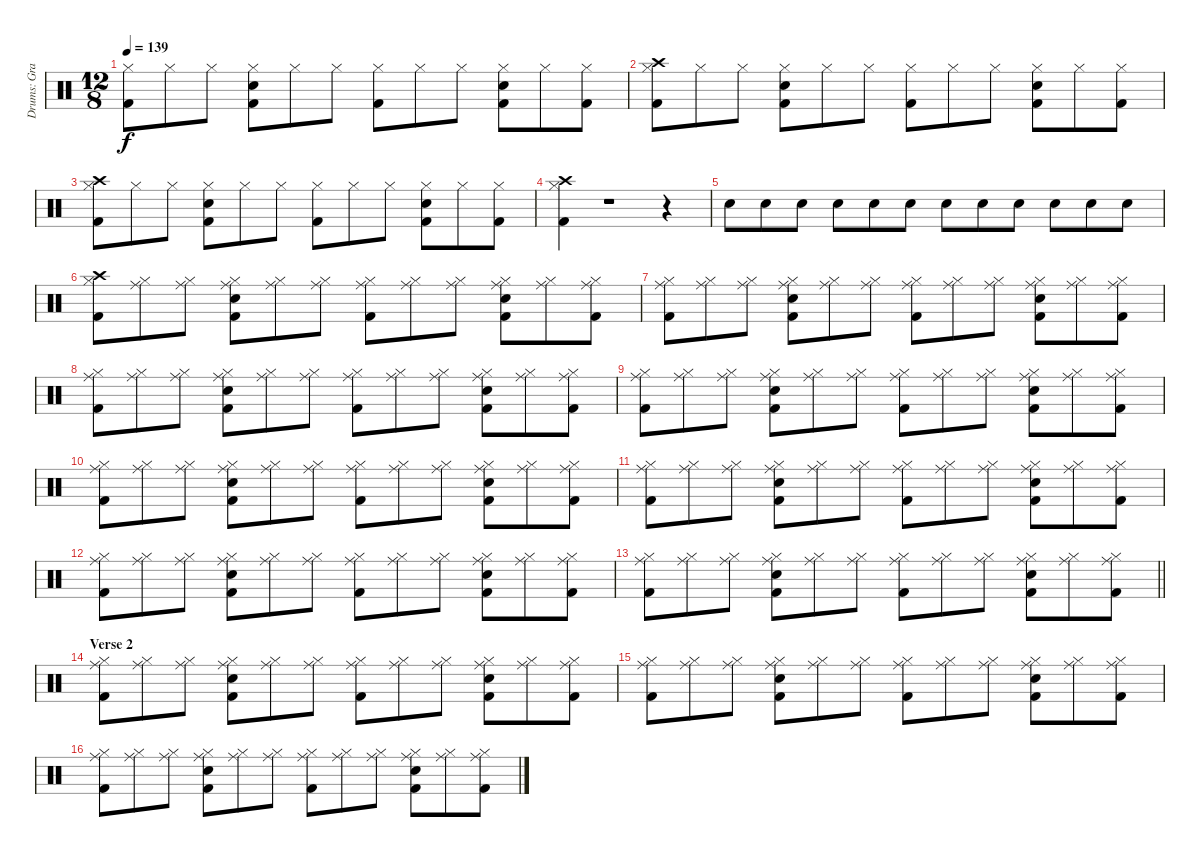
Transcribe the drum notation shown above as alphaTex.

\track ("Drums: Graeme Edge" "Drums: Gra") {instrument percussion}
\staff {score}
\articulation defaults
\ts (12 8)
\tempo 139
\clef neutral
\ks c
("Hi-Hat (closed)" "Kick (hit) 2").8{dy f} "Hi-Hat (closed)".8 "Hi-Hat (closed)".8 ("Hi-Hat (closed)" "Snare (hit) 2" "Kick (hit) 2").8 "Hi-Hat (closed)".8 "Hi-Hat (closed)".8 ("Hi-Hat (closed)" "Kick (hit) 2").8 "Hi-Hat (closed)".8 "Hi-Hat (closed)".8 ("Hi-Hat (closed)" "Snare (hit) 2" "Kick (hit) 2").8 "Hi-Hat (closed)".8 ("Hi-Hat (closed)" "Kick (hit) 2").8 |
("Crash high (hit)" "Hi-Hat (closed)" "Kick (hit) 2").8 "Hi-Hat (closed)".8 "Hi-Hat (closed)".8 ("Hi-Hat (closed)" "Snare (hit) 2" "Kick (hit) 2").8 "Hi-Hat (closed)".8 "Hi-Hat (closed)".8 ("Hi-Hat (closed)" "Kick (hit) 2").8 "Hi-Hat (closed)".8 "Hi-Hat (closed)".8 ("Hi-Hat (closed)" "Snare (hit) 2" "Kick (hit) 2").8 "Hi-Hat (closed)".8 ("Hi-Hat (closed)" "Kick (hit) 2").8 |
("Crash high (hit)" "Hi-Hat (closed)" "Kick (hit) 2").8 "Hi-Hat (closed)".8 "Hi-Hat (closed)".8 ("Hi-Hat (closed)" "Snare (hit) 2" "Kick (hit) 2").8 "Hi-Hat (closed)".8 "Hi-Hat (closed)".8 ("Hi-Hat (closed)" "Kick (hit) 2").8 "Hi-Hat (closed)".8 "Hi-Hat (closed)".8 ("Hi-Hat (closed)" "Snare (hit) 2" "Kick (hit) 2").8 "Hi-Hat (closed)".8 ("Hi-Hat (closed)" "Kick (hit) 2").8 |
("Hi-Hat (closed)" "Crash high (hit)" "Kick (hit) 2").4 r.1 r.4 |
"Snare (hit) 2".8 "Snare (hit) 2".8 "Snare (hit) 2".8 "Snare (hit) 2".8 "Snare (hit) 2".8 "Snare (hit) 2".8 "Snare (hit) 2".8 "Snare (hit) 2".8 "Snare (hit) 2".8 "Snare (hit) 2".8 "Snare (hit) 2".8 "Snare (hit) 2".8 |
("Crash high (hit)" "Hi-Hat (closed)" "Kick (hit) 2").8 ("Ride (middle)" "Hi-Hat (closed)").8 ("Ride (middle)" "Hi-Hat (closed)").8 ("Ride (middle)" "Hi-Hat (closed)" "Snare (hit) 2" "Kick (hit) 2").8 ("Ride (middle)" "Hi-Hat (closed)").8 ("Ride (middle)" "Hi-Hat (closed)").8 ("Ride (middle)" "Hi-Hat (closed)" "Kick (hit) 2").8 ("Ride (middle)" "Hi-Hat (closed)").8 ("Ride (middle)" "Hi-Hat (closed)").8 ("Ride (middle)" "Hi-Hat (closed)" "Snare (hit) 2" "Kick (hit) 2").8 ("Ride (middle)" "Hi-Hat (closed)").8 ("Ride (middle)" "Hi-Hat (closed)" "Kick (hit) 2").8 |
("Ride (middle)" "Hi-Hat (closed)" "Kick (hit) 2").8 ("Ride (middle)" "Hi-Hat (closed)").8 ("Ride (middle)" "Hi-Hat (closed)").8 ("Ride (middle)" "Hi-Hat (closed)" "Snare (hit) 2" "Kick (hit) 2").8 ("Ride (middle)" "Hi-Hat (closed)").8 ("Ride (middle)" "Hi-Hat (closed)").8 ("Ride (middle)" "Hi-Hat (closed)" "Kick (hit) 2").8 ("Ride (middle)" "Hi-Hat (closed)").8 ("Ride (middle)" "Hi-Hat (closed)").8 ("Ride (middle)" "Hi-Hat (closed)" "Snare (hit) 2" "Kick (hit) 2").8 ("Ride (middle)" "Hi-Hat (closed)").8 ("Ride (middle)" "Hi-Hat (closed)" "Kick (hit) 2").8 |
("Ride (middle)" "Hi-Hat (closed)" "Kick (hit) 2").8 ("Ride (middle)" "Hi-Hat (closed)").8 ("Ride (middle)" "Hi-Hat (closed)").8 ("Ride (middle)" "Hi-Hat (closed)" "Snare (hit) 2" "Kick (hit) 2").8 ("Ride (middle)" "Hi-Hat (closed)").8 ("Ride (middle)" "Hi-Hat (closed)").8 ("Ride (middle)" "Hi-Hat (closed)" "Kick (hit) 2").8 ("Ride (middle)" "Hi-Hat (closed)").8 ("Ride (middle)" "Hi-Hat (closed)").8 ("Ride (middle)" "Hi-Hat (closed)" "Snare (hit) 2" "Kick (hit) 2").8 ("Ride (middle)" "Hi-Hat (closed)").8 ("Ride (middle)" "Hi-Hat (closed)" "Kick (hit) 2").8 |
("Ride (middle)" "Hi-Hat (closed)" "Kick (hit) 2").8 ("Ride (middle)" "Hi-Hat (closed)").8 ("Ride (middle)" "Hi-Hat (closed)").8 ("Ride (middle)" "Hi-Hat (closed)" "Snare (hit) 2" "Kick (hit) 2").8 ("Ride (middle)" "Hi-Hat (closed)").8 ("Ride (middle)" "Hi-Hat (closed)").8 ("Ride (middle)" "Hi-Hat (closed)" "Kick (hit) 2").8 ("Ride (middle)" "Hi-Hat (closed)").8 ("Ride (middle)" "Hi-Hat (closed)").8 ("Ride (middle)" "Hi-Hat (closed)" "Snare (hit) 2" "Kick (hit) 2").8 ("Ride (middle)" "Hi-Hat (closed)").8 ("Ride (middle)" "Hi-Hat (closed)" "Kick (hit) 2").8 |
("Ride (middle)" "Hi-Hat (closed)" "Kick (hit) 2").8 ("Ride (middle)" "Hi-Hat (closed)").8 ("Ride (middle)" "Hi-Hat (closed)").8 ("Ride (middle)" "Hi-Hat (closed)" "Snare (hit) 2" "Kick (hit) 2").8 ("Ride (middle)" "Hi-Hat (closed)").8 ("Ride (middle)" "Hi-Hat (closed)").8 ("Ride (middle)" "Hi-Hat (closed)" "Kick (hit) 2").8 ("Ride (middle)" "Hi-Hat (closed)").8 ("Ride (middle)" "Hi-Hat (closed)").8 ("Ride (middle)" "Hi-Hat (closed)" "Snare (hit) 2" "Kick (hit) 2").8 ("Ride (middle)" "Hi-Hat (closed)").8 ("Ride (middle)" "Hi-Hat (closed)" "Kick (hit) 2").8 |
("Ride (middle)" "Hi-Hat (closed)" "Kick (hit) 2").8 ("Ride (middle)" "Hi-Hat (closed)").8 ("Ride (middle)" "Hi-Hat (closed)").8 ("Ride (middle)" "Hi-Hat (closed)" "Snare (hit) 2" "Kick (hit) 2").8 ("Ride (middle)" "Hi-Hat (closed)").8 ("Ride (middle)" "Hi-Hat (closed)").8 ("Ride (middle)" "Hi-Hat (closed)" "Kick (hit) 2").8 ("Ride (middle)" "Hi-Hat (closed)").8 ("Ride (middle)" "Hi-Hat (closed)").8 ("Ride (middle)" "Hi-Hat (closed)" "Snare (hit) 2" "Kick (hit) 2").8 ("Ride (middle)" "Hi-Hat (closed)").8 ("Ride (middle)" "Hi-Hat (closed)" "Kick (hit) 2").8 |
("Ride (middle)" "Hi-Hat (closed)" "Kick (hit) 2").8 ("Ride (middle)" "Hi-Hat (closed)").8 ("Ride (middle)" "Hi-Hat (closed)").8 ("Ride (middle)" "Hi-Hat (closed)" "Snare (hit) 2" "Kick (hit) 2").8 ("Ride (middle)" "Hi-Hat (closed)").8 ("Ride (middle)" "Hi-Hat (closed)").8 ("Ride (middle)" "Hi-Hat (closed)" "Kick (hit) 2").8 ("Ride (middle)" "Hi-Hat (closed)").8 ("Ride (middle)" "Hi-Hat (closed)").8 ("Ride (middle)" "Hi-Hat (closed)" "Snare (hit) 2" "Kick (hit) 2").8 ("Ride (middle)" "Hi-Hat (closed)").8 ("Ride (middle)" "Hi-Hat (closed)" "Kick (hit) 2").8 |
\barLineRight lightlight
("Ride (middle)" "Hi-Hat (closed)" "Kick (hit) 2").8 ("Ride (middle)" "Hi-Hat (closed)").8 ("Ride (middle)" "Hi-Hat (closed)").8 ("Ride (middle)" "Hi-Hat (closed)" "Snare (hit) 2" "Kick (hit) 2").8 ("Ride (middle)" "Hi-Hat (closed)").8 ("Ride (middle)" "Hi-Hat (closed)").8 ("Ride (middle)" "Hi-Hat (closed)" "Kick (hit) 2").8 ("Ride (middle)" "Hi-Hat (closed)").8 ("Ride (middle)" "Hi-Hat (closed)").8 ("Ride (middle)" "Hi-Hat (closed)" "Snare (hit) 2" "Kick (hit) 2").8 ("Ride (middle)" "Hi-Hat (closed)").8 ("Ride (middle)" "Hi-Hat (closed)" "Kick (hit) 2").8 |
\section ("" "Verse 2")
("Ride (middle)" "Hi-Hat (closed)" "Kick (hit) 2").8 ("Ride (middle)" "Hi-Hat (closed)").8 ("Ride (middle)" "Hi-Hat (closed)").8 ("Ride (middle)" "Hi-Hat (closed)" "Snare (hit) 2" "Kick (hit) 2").8 ("Ride (middle)" "Hi-Hat (closed)").8 ("Ride (middle)" "Hi-Hat (closed)").8 ("Ride (middle)" "Hi-Hat (closed)" "Kick (hit) 2").8 ("Ride (middle)" "Hi-Hat (closed)").8 ("Ride (middle)" "Hi-Hat (closed)").8 ("Ride (middle)" "Hi-Hat (closed)" "Snare (hit) 2" "Kick (hit) 2").8 ("Ride (middle)" "Hi-Hat (closed)").8 ("Ride (middle)" "Hi-Hat (closed)" "Kick (hit) 2").8 |
("Ride (middle)" "Hi-Hat (closed)" "Kick (hit) 2").8 ("Ride (middle)" "Hi-Hat (closed)").8 ("Ride (middle)" "Hi-Hat (closed)").8 ("Ride (middle)" "Hi-Hat (closed)" "Snare (hit) 2" "Kick (hit) 2").8 ("Ride (middle)" "Hi-Hat (closed)").8 ("Ride (middle)" "Hi-Hat (closed)").8 ("Ride (middle)" "Hi-Hat (closed)" "Kick (hit) 2").8 ("Ride (middle)" "Hi-Hat (closed)").8 ("Ride (middle)" "Hi-Hat (closed)").8 ("Ride (middle)" "Hi-Hat (closed)" "Snare (hit) 2" "Kick (hit) 2").8 ("Ride (middle)" "Hi-Hat (closed)").8 ("Ride (middle)" "Hi-Hat (closed)" "Kick (hit) 2").8 |
("Ride (middle)" "Hi-Hat (closed)" "Kick (hit) 2").8 ("Ride (middle)" "Hi-Hat (closed)").8 ("Ride (middle)" "Hi-Hat (closed)").8 ("Ride (middle)" "Hi-Hat (closed)" "Snare (hit) 2" "Kick (hit) 2").8 ("Ride (middle)" "Hi-Hat (closed)").8 ("Ride (middle)" "Hi-Hat (closed)").8 ("Ride (middle)" "Hi-Hat (closed)" "Kick (hit) 2").8 ("Ride (middle)" "Hi-Hat (closed)").8 ("Ride (middle)" "Hi-Hat (closed)").8 ("Ride (middle)" "Hi-Hat (closed)" "Snare (hit) 2" "Kick (hit) 2").8 ("Ride (middle)" "Hi-Hat (closed)").8 ("Ride (middle)" "Hi-Hat (closed)" "Kick (hit) 2").8
